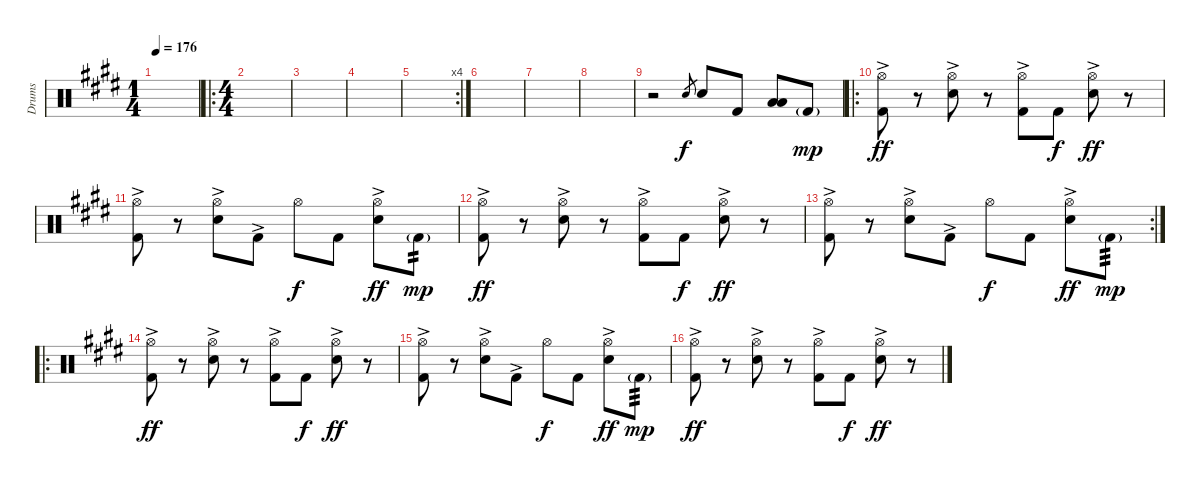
\track ("Drums" "Drums") {instrument percussion}
\staff {score}
\articulation defaults
\ts (1 4)
\tempo 176
\clef neutral
\ks e
|
\ro
\ts (4 4)
|
|
|
\rc 4
|
|
|
|
r.2 "Snare (hit) 2".8{gr} "Snare (hit) 2".8 "Kick (hit) 2".8 ("Low Tom (hit)" "Low Floor Tom (hit)").8 "Kick (hit) 2"{g}.8{dy mp} |
\ro
("Hi-Hat (open)" "Kick (hit) 2"{ac}).8{dy ff} r.8 ("Hi-Hat (open)" "Snare (hit) 2"{ac}).8 r.8 ("Hi-Hat (open)" "Kick (hit) 2"{ac}).8 "Kick (hit) 2".8{dy f} ("Hi-Hat (open)" "Snare (hit) 2"{ac}).8{dy ff} r.8 |
("Hi-Hat (open)" "Kick (hit) 2"{ac}).8 r.8 ("Hi-Hat (open)" "Snare (hit) 2"{ac}).8 "Kick (hit) 2"{ac}.8 "Hi-Hat (open)".8{dy f} "Kick (hit) 2".8 ("Hi-Hat (open)" "Snare (hit) 2"{ac}).8{dy ff} "Kick (hit) 2"{g}.8{tp 2 dy mp} |
("Hi-Hat (open)" "Kick (hit) 2"{ac}).8{dy ff} r.8 ("Hi-Hat (open)" "Snare (hit) 2"{ac}).8 r.8 ("Hi-Hat (open)" "Kick (hit) 2"{ac}).8 "Kick (hit) 2".8{dy f} ("Hi-Hat (open)" "Snare (hit) 2"{ac}).8{dy ff} r.8 |
\rc 2
("Hi-Hat (open)" "Kick (hit) 2"{ac}).8 r.8 ("Hi-Hat (open)" "Snare (hit) 2"{ac}).8 "Kick (hit) 2"{ac}.8 "Hi-Hat (open)".8{dy f} "Kick (hit) 2".8 ("Hi-Hat (open)" "Snare (hit) 2"{ac}).8{dy ff} "Kick (hit) 2"{g}.8{tp 3 dy mp} |
\ro
("Hi-Hat (open)" "Kick (hit) 2"{ac}).8{dy ff} r.8 ("Hi-Hat (open)" "Snare (hit) 2"{ac}).8 r.8 ("Hi-Hat (open)" "Kick (hit) 2"{ac}).8 "Kick (hit) 2".8{dy f} ("Hi-Hat (open)" "Snare (hit) 2"{ac}).8{dy ff} r.8 |
("Hi-Hat (open)" "Kick (hit) 2"{ac}).8 r.8 ("Hi-Hat (open)" "Snare (hit) 2"{ac}).8 "Kick (hit) 2"{ac}.8 "Hi-Hat (open)".8{dy f} "Kick (hit) 2".8 ("Hi-Hat (open)" "Snare (hit) 2"{ac}).8{dy ff} "Kick (hit) 2"{g}.8{tp 3 dy mp} |
("Hi-Hat (open)" "Kick (hit) 2"{ac}).8{dy ff} r.8 ("Hi-Hat (open)" "Snare (hit) 2"{ac}).8 r.8 ("Hi-Hat (open)" "Kick (hit) 2"{ac}).8 "Kick (hit) 2".8{dy f} ("Hi-Hat (open)" "Snare (hit) 2"{ac}).8{dy ff} r.8
